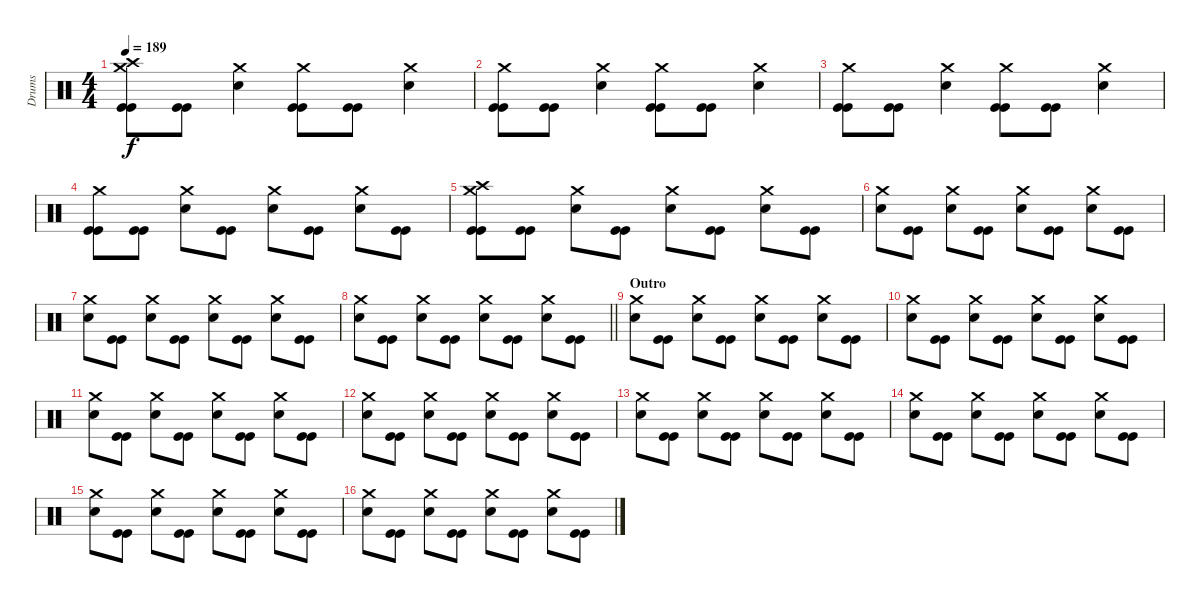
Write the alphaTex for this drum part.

\track ("Drums" "Drums") {instrument percussion}
\staff {score}
\articulation defaults
\ts (4 4)
\tempo 189
\clef neutral
\ks c
("Crash high (hit)" "Crash medium (hit)" "Kick (hit)" "Kick (hit)").8{dy f} ("Kick (hit)" "Kick (hit)").8 ("Crash medium (hit)" "Electric Snare (hit)").4 ("Crash medium (hit)" "Kick (hit)" "Kick (hit)").8 ("Kick (hit)" "Kick (hit)").8 ("Crash medium (hit)" "Electric Snare (hit)").4 |
("Crash medium (hit)" "Kick (hit)" "Kick (hit)").8 ("Kick (hit)" "Kick (hit)").8 ("Crash medium (hit)" "Electric Snare (hit)").4 ("Crash medium (hit)" "Kick (hit)" "Kick (hit)").8 ("Kick (hit)" "Kick (hit)").8 ("Crash medium (hit)" "Electric Snare (hit)").4 |
("Crash medium (hit)" "Kick (hit)" "Kick (hit)").8 ("Kick (hit)" "Kick (hit)").8 ("Crash medium (hit)" "Electric Snare (hit)").4 ("Crash medium (hit)" "Kick (hit)" "Kick (hit)").8 ("Kick (hit)" "Kick (hit)").8 ("Crash medium (hit)" "Electric Snare (hit)").4 |
("Crash medium (hit)" "Kick (hit)" "Kick (hit)").8 ("Kick (hit)" "Kick (hit)").8 ("Crash medium (hit)" "Electric Snare (hit)").8 ("Kick (hit)" "Kick (hit)").8 ("Crash medium (hit)" "Electric Snare (hit)").8 ("Kick (hit)" "Kick (hit)").8 ("Crash medium (hit)" "Electric Snare (hit)").8 ("Kick (hit)" "Kick (hit)").8 |
("Crash high (hit)" "Crash medium (hit)" "Kick (hit)" "Kick (hit)").8 ("Kick (hit)" "Kick (hit)").8 ("Crash medium (hit)" "Electric Snare (hit)").8 ("Kick (hit)" "Kick (hit)").8 ("Crash medium (hit)" "Electric Snare (hit)").8 ("Kick (hit)" "Kick (hit)").8 ("Crash medium (hit)" "Electric Snare (hit)").8 ("Kick (hit)" "Kick (hit)").8 |
("Crash medium (hit)" "Electric Snare (hit)").8 ("Kick (hit)" "Kick (hit)").8 ("Crash medium (hit)" "Electric Snare (hit)").8 ("Kick (hit)" "Kick (hit)").8 ("Crash medium (hit)" "Electric Snare (hit)").8 ("Kick (hit)" "Kick (hit)").8 ("Crash medium (hit)" "Electric Snare (hit)").8 ("Kick (hit)" "Kick (hit)").8 |
("Crash medium (hit)" "Electric Snare (hit)").8 ("Kick (hit)" "Kick (hit)").8 ("Crash medium (hit)" "Electric Snare (hit)").8 ("Kick (hit)" "Kick (hit)").8 ("Crash medium (hit)" "Electric Snare (hit)").8 ("Kick (hit)" "Kick (hit)").8 ("Crash medium (hit)" "Electric Snare (hit)").8 ("Kick (hit)" "Kick (hit)").8 |
\barLineRight lightlight
("Crash medium (hit)" "Electric Snare (hit)").8 ("Kick (hit)" "Kick (hit)").8 ("Crash medium (hit)" "Electric Snare (hit)").8 ("Kick (hit)" "Kick (hit)").8 ("Crash medium (hit)" "Electric Snare (hit)").8 ("Kick (hit)" "Kick (hit)").8 ("Crash medium (hit)" "Electric Snare (hit)").8 ("Kick (hit)" "Kick (hit)").8 |
\section ("" "Outro")
("Crash medium (hit)" "Electric Snare (hit)").8 ("Kick (hit)" "Kick (hit)").8 ("Crash medium (hit)" "Electric Snare (hit)").8 ("Kick (hit)" "Kick (hit)").8 ("Crash medium (hit)" "Electric Snare (hit)").8 ("Kick (hit)" "Kick (hit)").8 ("Crash medium (hit)" "Electric Snare (hit)").8 ("Kick (hit)" "Kick (hit)").8 |
("Crash medium (hit)" "Electric Snare (hit)").8 ("Kick (hit)" "Kick (hit)").8 ("Crash medium (hit)" "Electric Snare (hit)").8 ("Kick (hit)" "Kick (hit)").8 ("Crash medium (hit)" "Electric Snare (hit)").8 ("Kick (hit)" "Kick (hit)").8 ("Crash medium (hit)" "Electric Snare (hit)").8 ("Kick (hit)" "Kick (hit)").8 |
("Crash medium (hit)" "Electric Snare (hit)").8 ("Kick (hit)" "Kick (hit)").8 ("Crash medium (hit)" "Electric Snare (hit)").8 ("Kick (hit)" "Kick (hit)").8 ("Crash medium (hit)" "Electric Snare (hit)").8 ("Kick (hit)" "Kick (hit)").8 ("Crash medium (hit)" "Electric Snare (hit)").8 ("Kick (hit)" "Kick (hit)").8 |
("Crash medium (hit)" "Electric Snare (hit)").8 ("Kick (hit)" "Kick (hit)").8 ("Crash medium (hit)" "Electric Snare (hit)").8 ("Kick (hit)" "Kick (hit)").8 ("Crash medium (hit)" "Electric Snare (hit)").8 ("Kick (hit)" "Kick (hit)").8 ("Crash medium (hit)" "Electric Snare (hit)").8 ("Kick (hit)" "Kick (hit)").8 |
("Crash medium (hit)" "Electric Snare (hit)").8 ("Kick (hit)" "Kick (hit)").8 ("Crash medium (hit)" "Electric Snare (hit)").8 ("Kick (hit)" "Kick (hit)").8 ("Crash medium (hit)" "Electric Snare (hit)").8 ("Kick (hit)" "Kick (hit)").8 ("Crash medium (hit)" "Electric Snare (hit)").8 ("Kick (hit)" "Kick (hit)").8 |
("Crash medium (hit)" "Electric Snare (hit)").8 ("Kick (hit)" "Kick (hit)").8 ("Crash medium (hit)" "Electric Snare (hit)").8 ("Kick (hit)" "Kick (hit)").8 ("Crash medium (hit)" "Electric Snare (hit)").8 ("Kick (hit)" "Kick (hit)").8 ("Crash medium (hit)" "Electric Snare (hit)").8 ("Kick (hit)" "Kick (hit)").8 |
("Crash medium (hit)" "Electric Snare (hit)").8 ("Kick (hit)" "Kick (hit)").8 ("Crash medium (hit)" "Electric Snare (hit)").8 ("Kick (hit)" "Kick (hit)").8 ("Crash medium (hit)" "Electric Snare (hit)").8 ("Kick (hit)" "Kick (hit)").8 ("Crash medium (hit)" "Electric Snare (hit)").8 ("Kick (hit)" "Kick (hit)").8 |
("Crash medium (hit)" "Electric Snare (hit)").8 ("Kick (hit)" "Kick (hit)").8 ("Crash medium (hit)" "Electric Snare (hit)").8 ("Kick (hit)" "Kick (hit)").8 ("Crash medium (hit)" "Electric Snare (hit)").8 ("Kick (hit)" "Kick (hit)").8 ("Crash medium (hit)" "Electric Snare (hit)").8 ("Kick (hit)" "Kick (hit)").8
